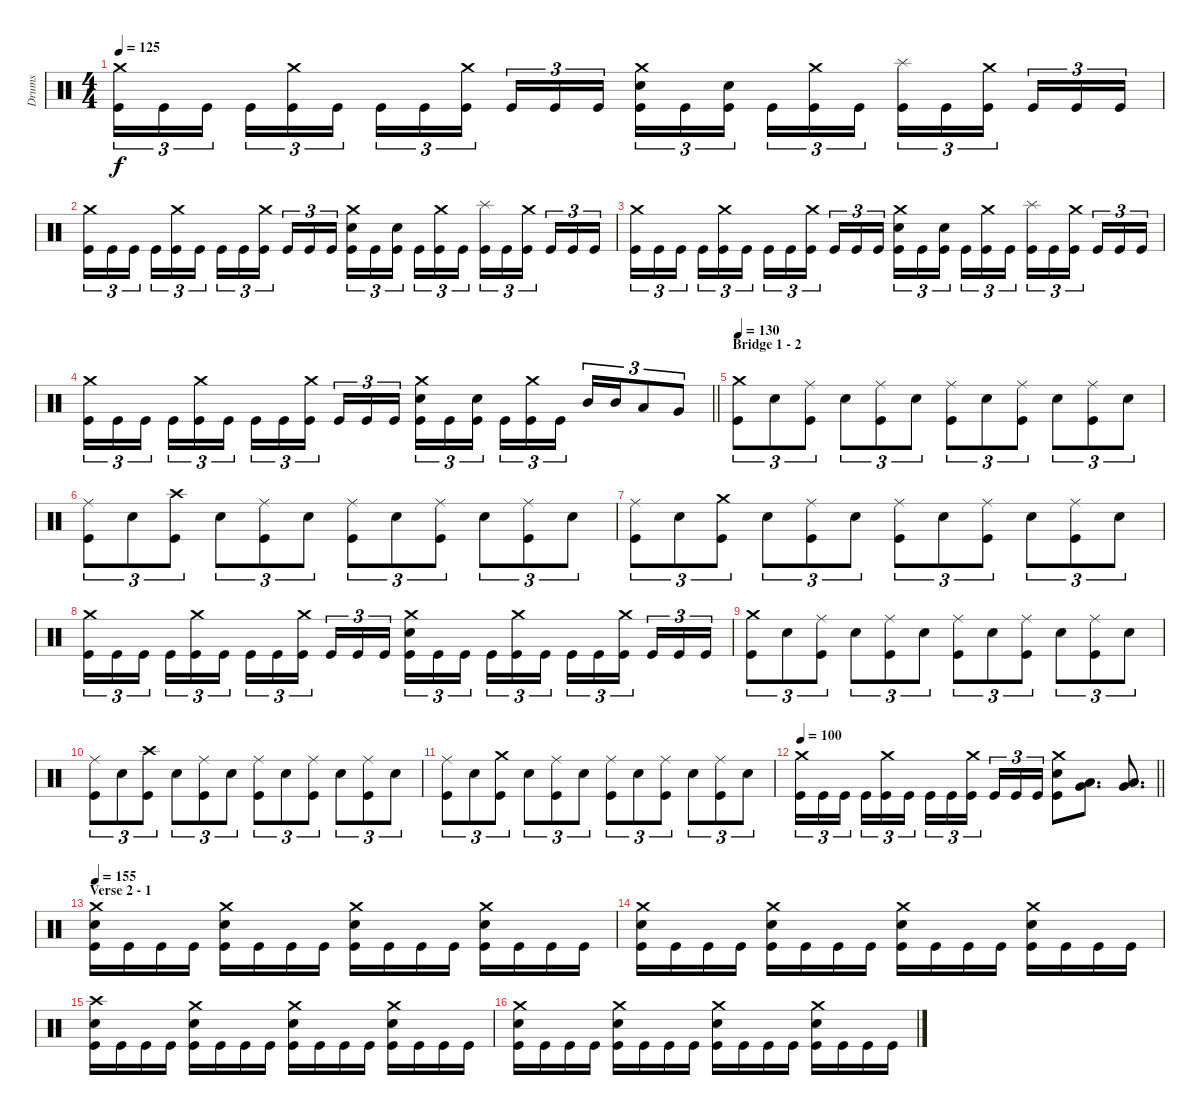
\track ("Drums" "Drums") {instrument percussion}
\staff {score}
\articulation defaults
\ts (4 4)
\tempo 125
\clef neutral
\ks c
("Crash medium (hit)" "Kick (hit)").16{tu (3 2) dy f} "Kick (hit)".16{tu (3 2)} "Kick (hit)".16{tu (3 2) beam splitsecondary} "Kick (hit)".16{tu (3 2)} ("Crash medium (hit)" "Kick (hit)").16{tu (3 2)} "Kick (hit)".16{tu (3 2)} "Kick (hit)".16{tu (3 2)} "Kick (hit)".16{tu (3 2)} ("Crash medium (hit)" "Kick (hit)").16{tu (3 2) beam splitsecondary} "Kick (hit)".16{tu (3 2)} "Kick (hit)".16{tu (3 2)} "Kick (hit)".16{tu (3 2)} ("Crash medium (hit)" "Snare (hit) 2" "Kick (hit)").16{tu (3 2)} "Kick (hit)".16{tu (3 2)} ("Snare (hit) 2" "Kick (hit)").16{tu (3 2) beam splitsecondary} "Kick (hit)".16{tu (3 2)} ("Crash medium (hit)" "Kick (hit)").16{tu (3 2)} "Kick (hit)".16{tu (3 2)} ("Splash (hit)" "Kick (hit)").16{tu (3 2)} "Kick (hit)".16{tu (3 2)} ("Crash medium (hit)" "Kick (hit)").16{tu (3 2) beam splitsecondary} "Kick (hit)".16{tu (3 2)} "Kick (hit)".16{tu (3 2)} "Kick (hit)".16{tu (3 2)} |
("Crash medium (hit)" "Kick (hit)").16{tu (3 2)} "Kick (hit)".16{tu (3 2)} "Kick (hit)".16{tu (3 2) beam splitsecondary} "Kick (hit)".16{tu (3 2)} ("Crash medium (hit)" "Kick (hit)").16{tu (3 2)} "Kick (hit)".16{tu (3 2)} "Kick (hit)".16{tu (3 2)} "Kick (hit)".16{tu (3 2)} ("Crash medium (hit)" "Kick (hit)").16{tu (3 2) beam splitsecondary} "Kick (hit)".16{tu (3 2)} "Kick (hit)".16{tu (3 2)} "Kick (hit)".16{tu (3 2)} ("Crash medium (hit)" "Snare (hit) 2" "Kick (hit)").16{tu (3 2)} "Kick (hit)".16{tu (3 2)} ("Snare (hit) 2" "Kick (hit)").16{tu (3 2) beam splitsecondary} "Kick (hit)".16{tu (3 2)} ("Crash medium (hit)" "Kick (hit)").16{tu (3 2)} "Kick (hit)".16{tu (3 2)} ("Splash (hit)" "Kick (hit)").16{tu (3 2)} "Kick (hit)".16{tu (3 2)} ("Crash medium (hit)" "Kick (hit)").16{tu (3 2) beam splitsecondary} "Kick (hit)".16{tu (3 2)} "Kick (hit)".16{tu (3 2)} "Kick (hit)".16{tu (3 2)} |
("Crash medium (hit)" "Kick (hit)").16{tu (3 2)} "Kick (hit)".16{tu (3 2)} "Kick (hit)".16{tu (3 2) beam splitsecondary} "Kick (hit)".16{tu (3 2)} ("Crash medium (hit)" "Kick (hit)").16{tu (3 2)} "Kick (hit)".16{tu (3 2)} "Kick (hit)".16{tu (3 2)} "Kick (hit)".16{tu (3 2)} ("Crash medium (hit)" "Kick (hit)").16{tu (3 2) beam splitsecondary} "Kick (hit)".16{tu (3 2)} "Kick (hit)".16{tu (3 2)} "Kick (hit)".16{tu (3 2)} ("Crash medium (hit)" "Snare (hit) 2" "Kick (hit)").16{tu (3 2)} "Kick (hit)".16{tu (3 2)} ("Snare (hit) 2" "Kick (hit)").16{tu (3 2) beam splitsecondary} "Kick (hit)".16{tu (3 2)} ("Crash medium (hit)" "Kick (hit)").16{tu (3 2)} "Kick (hit)".16{tu (3 2)} ("Splash (hit)" "Kick (hit)").16{tu (3 2)} "Kick (hit)".16{tu (3 2)} ("Crash medium (hit)" "Kick (hit)").16{tu (3 2) beam splitsecondary} "Kick (hit)".16{tu (3 2)} "Kick (hit)".16{tu (3 2)} "Kick (hit)".16{tu (3 2)} |
\barLineRight lightlight
("Crash medium (hit)" "Kick (hit)").16{tu (3 2)} "Kick (hit)".16{tu (3 2)} "Kick (hit)".16{tu (3 2) beam splitsecondary} "Kick (hit)".16{tu (3 2)} ("Crash medium (hit)" "Kick (hit)").16{tu (3 2)} "Kick (hit)".16{tu (3 2)} "Kick (hit)".16{tu (3 2)} "Kick (hit)".16{tu (3 2)} ("Crash medium (hit)" "Kick (hit)").16{tu (3 2) beam splitsecondary} "Kick (hit)".16{tu (3 2)} "Kick (hit)".16{tu (3 2)} "Kick (hit)".16{tu (3 2)} ("Crash medium (hit)" "Snare (hit) 2" "Kick (hit)").16{tu (3 2)} "Kick (hit)".16{tu (3 2)} ("Snare (hit) 2" "Kick (hit)").16{tu (3 2) beam splitsecondary} "Kick (hit)".16{tu (3 2)} ("Crash medium (hit)" "Kick (hit)").16{tu (3 2)} "Kick (hit)".16{tu (3 2)} "Mid Tom (hit)".16{tu (3 2)} "Mid Tom (hit)".16{tu (3 2)} "Low Tom (hit)".8{tu (3 2)} "Very Low Tom (hit)".8{tu (3 2)} |
\section ("" "Bridge 1 - 2")
\tempo 130
("Crash medium (hit)" "Kick (hit)").8{tu (3 2)} "Snare (hit) 2".8{tu (3 2)} ("Ride (middle)" "Kick (hit)").8{tu (3 2)} "Snare (hit) 2".8{tu (3 2)} ("Ride (middle)" "Kick (hit)").8{tu (3 2)} "Snare (hit) 2".8{tu (3 2)} ("Ride (middle)" "Kick (hit)").8{tu (3 2)} "Snare (hit) 2".8{tu (3 2)} ("Ride (middle)" "Kick (hit)").8{tu (3 2)} "Snare (hit) 2".8{tu (3 2)} ("Ride (middle)" "Kick (hit)").8{tu (3 2)} "Snare (hit) 2".8{tu (3 2)} |
("Ride (middle)" "Kick (hit)").8{tu (3 2)} "Snare (hit) 2".8{tu (3 2)} ("Crash high (hit)" "Kick (hit)").8{tu (3 2)} "Snare (hit) 2".8{tu (3 2)} ("Ride (middle)" "Kick (hit)").8{tu (3 2)} "Snare (hit) 2".8{tu (3 2)} ("Ride (middle)" "Kick (hit)").8{tu (3 2)} "Snare (hit) 2".8{tu (3 2)} ("Ride (middle)" "Kick (hit)").8{tu (3 2)} "Snare (hit) 2".8{tu (3 2)} ("Ride (middle)" "Kick (hit)").8{tu (3 2)} "Snare (hit) 2".8{tu (3 2)} |
("Ride (middle)" "Kick (hit)").8{tu (3 2)} "Snare (hit) 2".8{tu (3 2)} ("Crash medium (hit)" "Kick (hit)").8{tu (3 2)} "Snare (hit) 2".8{tu (3 2)} ("Ride (middle)" "Kick (hit)").8{tu (3 2)} "Snare (hit) 2".8{tu (3 2)} ("Ride (middle)" "Kick (hit)").8{tu (3 2)} "Snare (hit) 2".8{tu (3 2)} ("Ride (middle)" "Kick (hit)").8{tu (3 2)} "Snare (hit) 2".8{tu (3 2)} ("Ride (middle)" "Kick (hit)").8{tu (3 2)} "Snare (hit) 2".8{tu (3 2)} |
("Crash medium (hit)" "Kick (hit)").16{tu (3 2)} "Kick (hit)".16{tu (3 2)} "Kick (hit)".16{tu (3 2) beam splitsecondary} "Kick (hit)".16{tu (3 2)} ("Crash medium (hit)" "Kick (hit)").16{tu (3 2)} "Kick (hit)".16{tu (3 2)} "Kick (hit)".16{tu (3 2)} "Kick (hit)".16{tu (3 2)} ("Crash medium (hit)" "Kick (hit)").16{tu (3 2) beam splitsecondary} "Kick (hit)".16{tu (3 2)} "Kick (hit)".16{tu (3 2)} "Kick (hit)".16{tu (3 2)} ("Crash medium (hit)" "Snare (hit) 2" "Kick (hit)").16{tu (3 2)} "Kick (hit)".16{tu (3 2)} "Kick (hit)".16{tu (3 2) beam splitsecondary} "Kick (hit)".16{tu (3 2)} ("Crash medium (hit)" "Kick (hit)").16{tu (3 2)} "Kick (hit)".16{tu (3 2)} "Kick (hit)".16{tu (3 2)} "Kick (hit)".16{tu (3 2)} ("Crash medium (hit)" "Kick (hit)").16{tu (3 2) beam splitsecondary} "Kick (hit)".16{tu (3 2)} "Kick (hit)".16{tu (3 2)} "Kick (hit)".16{tu (3 2)} |
("Crash medium (hit)" "Kick (hit)").8{tu (3 2)} "Snare (hit) 2".8{tu (3 2)} ("Ride (middle)" "Kick (hit)").8{tu (3 2)} "Snare (hit) 2".8{tu (3 2)} ("Ride (middle)" "Kick (hit)").8{tu (3 2)} "Snare (hit) 2".8{tu (3 2)} ("Ride (middle)" "Kick (hit)").8{tu (3 2)} "Snare (hit) 2".8{tu (3 2)} ("Ride (middle)" "Kick (hit)").8{tu (3 2)} "Snare (hit) 2".8{tu (3 2)} ("Ride (middle)" "Kick (hit)").8{tu (3 2)} "Snare (hit) 2".8{tu (3 2)} |
("Ride (middle)" "Kick (hit)").8{tu (3 2)} "Snare (hit) 2".8{tu (3 2)} ("Crash high (hit)" "Kick (hit)").8{tu (3 2)} "Snare (hit) 2".8{tu (3 2)} ("Ride (middle)" "Kick (hit)").8{tu (3 2)} "Snare (hit) 2".8{tu (3 2)} ("Ride (middle)" "Kick (hit)").8{tu (3 2)} "Snare (hit) 2".8{tu (3 2)} ("Ride (middle)" "Kick (hit)").8{tu (3 2)} "Snare (hit) 2".8{tu (3 2)} ("Ride (middle)" "Kick (hit)").8{tu (3 2)} "Snare (hit) 2".8{tu (3 2)} |
("Ride (middle)" "Kick (hit)").8{tu (3 2)} "Snare (hit) 2".8{tu (3 2)} ("Crash medium (hit)" "Kick (hit)").8{tu (3 2)} "Snare (hit) 2".8{tu (3 2)} ("Ride (middle)" "Kick (hit)").8{tu (3 2)} "Snare (hit) 2".8{tu (3 2)} ("Ride (middle)" "Kick (hit)").8{tu (3 2)} "Snare (hit) 2".8{tu (3 2)} ("Ride (middle)" "Kick (hit)").8{tu (3 2)} "Snare (hit) 2".8{tu (3 2)} ("Ride (middle)" "Kick (hit)").8{tu (3 2)} "Snare (hit) 2".8{tu (3 2)} |
\tempo 100
\barLineRight lightlight
("Crash medium (hit)" "Kick (hit)").16{tu (3 2)} "Kick (hit)".16{tu (3 2)} "Kick (hit)".16{tu (3 2) beam splitsecondary} "Kick (hit)".16{tu (3 2)} ("Crash medium (hit)" "Kick (hit)").16{tu (3 2)} "Kick (hit)".16{tu (3 2)} "Kick (hit)".16{tu (3 2)} "Kick (hit)".16{tu (3 2)} ("Crash medium (hit)" "Kick (hit)").16{tu (3 2) beam splitsecondary} "Kick (hit)".16{tu (3 2)} "Kick (hit)".16{tu (3 2)} "Kick (hit)".16{tu (3 2)} ("Crash medium (hit)" "Snare (hit) 2" "Kick (hit)").8 ("Very Low Tom (hit)" "Low Floor Tom (hit)").8{d} ("Very Low Tom (hit)" "Low Floor Tom (hit)").8{d} |
\section ("" "Verse 2 - 1")
\tempo 155
("Crash medium (hit)" "Snare (hit) 2" "Kick (hit)").16 "Kick (hit)".16 "Kick (hit)".16 "Kick (hit)".16 ("Crash medium (hit)" "Snare (hit) 2" "Kick (hit)").16 "Kick (hit)".16 "Kick (hit)".16 "Kick (hit)".16 ("Crash medium (hit)" "Snare (hit) 2" "Kick (hit)").16 "Kick (hit)".16 "Kick (hit)".16 "Kick (hit)".16 ("Crash medium (hit)" "Snare (hit) 2" "Kick (hit)").16 "Kick (hit)".16 "Kick (hit)".16 "Kick (hit)".16 |
("Crash medium (hit)" "Snare (hit) 2" "Kick (hit)").16 "Kick (hit)".16 "Kick (hit)".16 "Kick (hit)".16 ("Crash medium (hit)" "Snare (hit) 2" "Kick (hit)").16 "Kick (hit)".16 "Kick (hit)".16 "Kick (hit)".16 ("Crash medium (hit)" "Snare (hit) 2" "Kick (hit)").16 "Kick (hit)".16 "Kick (hit)".16 "Kick (hit)".16 ("Crash medium (hit)" "Snare (hit) 2" "Kick (hit)").16 "Kick (hit)".16 "Kick (hit)".16 "Kick (hit)".16 |
("Crash high (hit)" "Snare (hit) 2" "Kick (hit)").16 "Kick (hit)".16 "Kick (hit)".16 "Kick (hit)".16 ("Crash medium (hit)" "Snare (hit) 2" "Kick (hit)").16 "Kick (hit)".16 "Kick (hit)".16 "Kick (hit)".16 ("Crash medium (hit)" "Snare (hit) 2" "Kick (hit)").16 "Kick (hit)".16 "Kick (hit)".16 "Kick (hit)".16 ("Crash medium (hit)" "Snare (hit) 2" "Kick (hit)").16 "Kick (hit)".16 "Kick (hit)".16 "Kick (hit)".16 |
("Crash medium (hit)" "Snare (hit) 2" "Kick (hit)").16 "Kick (hit)".16 "Kick (hit)".16 "Kick (hit)".16 ("Crash medium (hit)" "Snare (hit) 2" "Kick (hit)").16 "Kick (hit)".16 "Kick (hit)".16 "Kick (hit)".16 ("Crash medium (hit)" "Snare (hit) 2" "Kick (hit)").16 "Kick (hit)".16 "Kick (hit)".16 "Kick (hit)".16 ("Crash medium (hit)" "Snare (hit) 2" "Kick (hit)").16 "Kick (hit)".16 "Kick (hit)".16 "Kick (hit)".16
